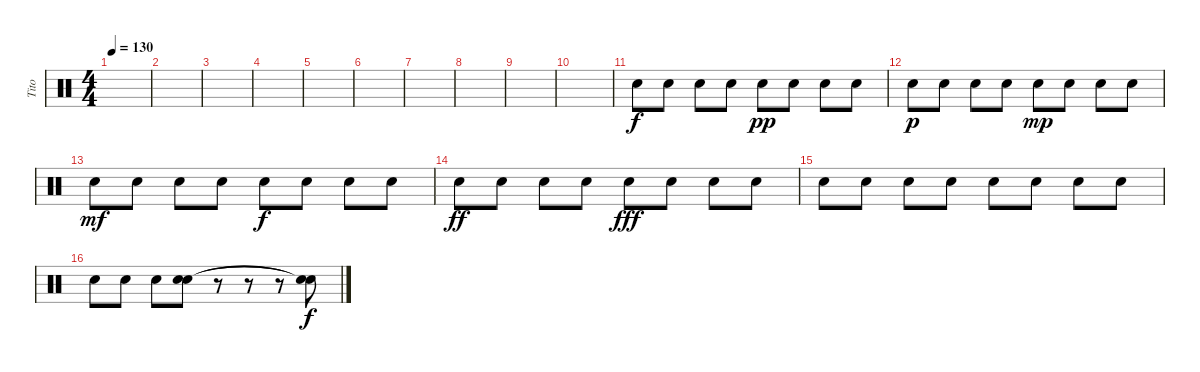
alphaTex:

\track ("Tito" "Tito") {instrument percussion}
\staff {score}
\articulation defaults
\ts (4 4)
\tempo 130
\clef neutral
\ks c
|
|
|
|
|
|
|
|
|
|
"Electric Snare (hit)".8 "Electric Snare (hit)".8 "Electric Snare (hit)".8 "Electric Snare (hit)".8 "Electric Snare (hit)".8{dy pp} "Electric Snare (hit)".8 "Electric Snare (hit)".8 "Electric Snare (hit)".8 |
"Electric Snare (hit)".8{dy p} "Electric Snare (hit)".8 "Electric Snare (hit)".8 "Electric Snare (hit)".8 "Electric Snare (hit)".8{dy mp} "Electric Snare (hit)".8 "Electric Snare (hit)".8 "Electric Snare (hit)".8 |
"Electric Snare (hit)".8{dy mf} "Electric Snare (hit)".8 "Electric Snare (hit)".8 "Electric Snare (hit)".8 "Electric Snare (hit)".8{dy f} "Electric Snare (hit)".8 "Electric Snare (hit)".8 "Electric Snare (hit)".8 |
"Electric Snare (hit)".8{dy ff} "Electric Snare (hit)".8 "Electric Snare (hit)".8 "Electric Snare (hit)".8 "Electric Snare (hit)".8{dy fff} "Electric Snare (hit)".8 "Electric Snare (hit)".8 "Electric Snare (hit)".8 |
"Electric Snare (hit)".8 "Electric Snare (hit)".8 "Electric Snare (hit)".8 "Electric Snare (hit)".8 "Electric Snare (hit)".8 "Electric Snare (hit)".8 "Electric Snare (hit)".8 "Electric Snare (hit)".8 |
"Electric Snare (hit)".8 "Electric Snare (hit)".8 "Electric Snare (hit)".8 ("Electric Snare (hit)" "Electric Snare (hit)").8 r.8 r.8 r.8 ("Snare (hit)"{t} "Electric Snare (hit)"{t}).8{dy f}
